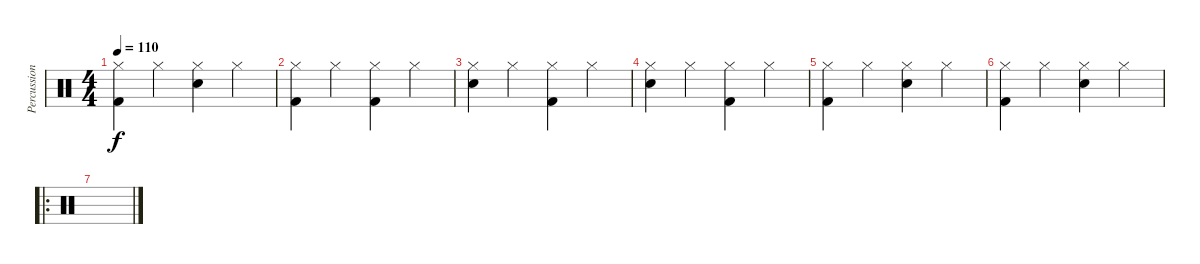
\track ("Percussion" "Percussion") {instrument percussion}
\staff {score}
\articulation defaults
\ts (4 4)
\tempo 110
\clef neutral
\ks c
("Hi-Hat (closed)" "Kick (hit) 2").4{dy f} "Hi-Hat (closed)".4 ("Hi-Hat (closed)" "Snare (hit) 2").4 "Hi-Hat (closed)".4 |
("Hi-Hat (closed)" "Kick (hit) 2").4 "Hi-Hat (closed)".4 ("Hi-Hat (closed)" "Kick (hit) 2").4 "Hi-Hat (closed)".4 |
("Hi-Hat (closed)" "Snare (hit) 2").4 "Hi-Hat (closed)".4 ("Hi-Hat (closed)" "Kick (hit) 2").4 "Hi-Hat (closed)".4 |
("Hi-Hat (closed)" "Snare (hit) 2").4 "Hi-Hat (closed)".4 ("Hi-Hat (closed)" "Kick (hit) 2").4 "Hi-Hat (closed)".4 |
("Hi-Hat (closed)" "Kick (hit) 2").4 "Hi-Hat (closed)".4 ("Hi-Hat (closed)" "Snare (hit) 2").4 "Hi-Hat (closed)".4 |
("Hi-Hat (closed)" "Kick (hit) 2").4 "Hi-Hat (closed)".4 ("Hi-Hat (closed)" "Snare (hit) 2").4 "Hi-Hat (closed)".4 |
\ro
